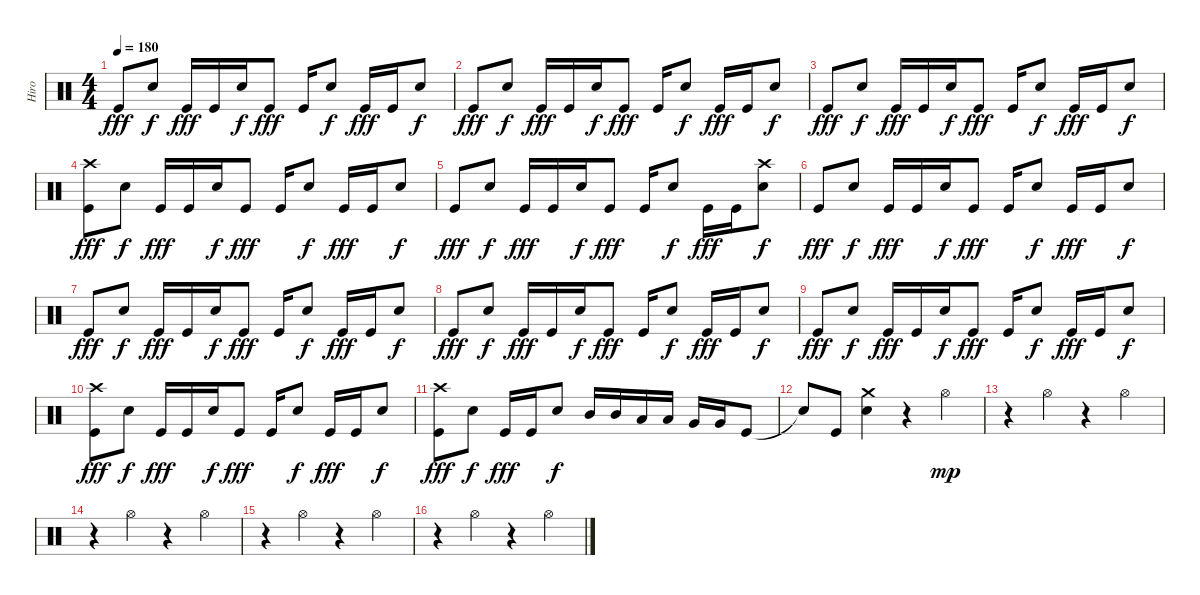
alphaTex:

\track ("Hiro" "Hiro") {instrument percussion}
\staff {score}
\articulation defaults
\ts (4 4)
\tempo 180
\clef neutral
\ks c "Kick (hit)".8{dy fff} "Electric Snare (hit)".8{dy f} "Kick (hit)".16{dy fff} "Kick (hit)".16 "Electric Snare (hit)".16{dy f} "Kick (hit)".8{dy fff} "Kick (hit)".16 "Electric Snare (hit)".8{dy f} "Kick (hit)".16{dy fff} "Kick (hit)".16 "Electric Snare (hit)".8{dy f}
|
"Kick (hit)".8{dy fff} "Electric Snare (hit)".8{dy f} "Kick (hit)".16{dy fff} "Kick (hit)".16 "Electric Snare (hit)".16{dy f} "Kick (hit)".8{dy fff} "Kick (hit)".16 "Electric Snare (hit)".8{dy f} "Kick (hit)".16{dy fff} "Kick (hit)".16 "Electric Snare (hit)".8{dy f} |
"Kick (hit)".8{dy fff} "Electric Snare (hit)".8{dy f} "Kick (hit)".16{dy fff} "Kick (hit)".16 "Electric Snare (hit)".16{dy f} "Kick (hit)".8{dy fff} "Kick (hit)".16 "Electric Snare (hit)".8{dy f} "Kick (hit)".16{dy fff} "Kick (hit)".16 "Electric Snare (hit)".8{dy f} |
("Crash high (hit)" "Kick (hit)").8{dy fff} "Electric Snare (hit)".8{dy f} "Kick (hit)".16{dy fff} "Kick (hit)".16 "Electric Snare (hit)".16{dy f} "Kick (hit)".8{dy fff} "Kick (hit)".16 "Electric Snare (hit)".8{dy f} "Kick (hit)".16{dy fff} "Kick (hit)".16 "Electric Snare (hit)".8{dy f} |
"Kick (hit)".8{dy fff} "Electric Snare (hit)".8{dy f} "Kick (hit)".16{dy fff} "Kick (hit)".16 "Electric Snare (hit)".16{dy f} "Kick (hit)".8{dy fff} "Kick (hit)".16 "Electric Snare (hit)".8{dy f} "Kick (hit)".16{dy fff} "Kick (hit)".16 ("Crash high (hit)" "Electric Snare (hit)").8{dy f} |
"Kick (hit)".8{dy fff} "Electric Snare (hit)".8{dy f} "Kick (hit)".16{dy fff} "Kick (hit)".16 "Electric Snare (hit)".16{dy f} "Kick (hit)".8{dy fff} "Kick (hit)".16 "Electric Snare (hit)".8{dy f} "Kick (hit)".16{dy fff} "Kick (hit)".16 "Electric Snare (hit)".8{dy f} |
"Kick (hit)".8{dy fff} "Electric Snare (hit)".8{dy f} "Kick (hit)".16{dy fff} "Kick (hit)".16 "Electric Snare (hit)".16{dy f} "Kick (hit)".8{dy fff} "Kick (hit)".16 "Electric Snare (hit)".8{dy f} "Kick (hit)".16{dy fff} "Kick (hit)".16 "Electric Snare (hit)".8{dy f} |
"Kick (hit)".8{dy fff} "Electric Snare (hit)".8{dy f} "Kick (hit)".16{dy fff} "Kick (hit)".16 "Electric Snare (hit)".16{dy f} "Kick (hit)".8{dy fff} "Kick (hit)".16 "Electric Snare (hit)".8{dy f} "Kick (hit)".16{dy fff} "Kick (hit)".16 "Electric Snare (hit)".8{dy f} |
"Kick (hit)".8{dy fff} "Electric Snare (hit)".8{dy f} "Kick (hit)".16{dy fff} "Kick (hit)".16 "Electric Snare (hit)".16{dy f} "Kick (hit)".8{dy fff} "Kick (hit)".16 "Electric Snare (hit)".8{dy f} "Kick (hit)".16{dy fff} "Kick (hit)".16 "Electric Snare (hit)".8{dy f} |
("Crash high (hit)" "Kick (hit)").8{dy fff} "Electric Snare (hit)".8{dy f} "Kick (hit)".16{dy fff} "Kick (hit)".16 "Electric Snare (hit)".16{dy f} "Kick (hit)".8{dy fff} "Kick (hit)".16 "Electric Snare (hit)".8{dy f} "Kick (hit)".16{dy fff} "Kick (hit)".16 "Electric Snare (hit)".8{dy f} |
("Crash high (hit)" "Kick (hit)").8{dy fff} "Electric Snare (hit)".8{dy f} "Kick (hit)".16{dy fff} "Kick (hit)".16 "Electric Snare (hit)".8{dy f} "Mid Tom (hit)".16 "Mid Tom (hit)".16 "Low Tom (hit)".16 "Low Tom (hit)".16 "Very Low Tom (hit)".16 "Very Low Tom (hit)".16 "Kick (hit)".8 |
"Snare (hit)"{t}.8 "Kick (hit)".8 ("Electric Snare (hit)" "Crash medium (hit)").4 r.4 "Hi-Hat (open)".4{dy mp} |
r.4 "Hi-Hat (open)".4 r.4 "Hi-Hat (open)".4 |
r.4 "Hi-Hat (open)".4 r.4 "Hi-Hat (open)".4 |
r.4 "Hi-Hat (open)".4 r.4 "Hi-Hat (open)".4 |
r.4 "Hi-Hat (open)".4 r.4 "Hi-Hat (open)".4
